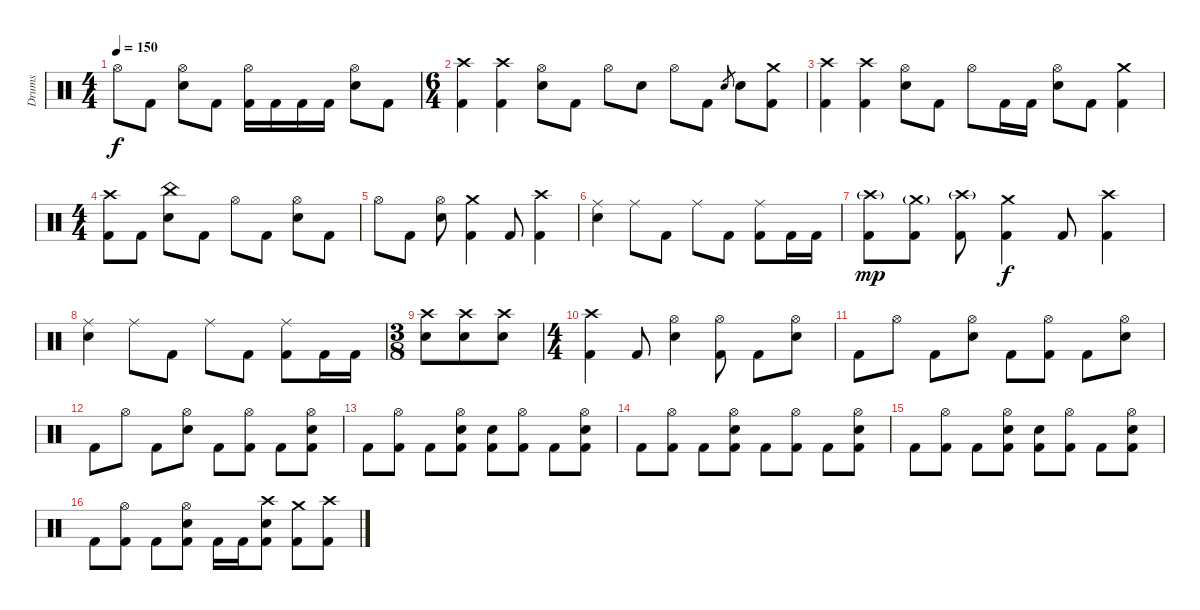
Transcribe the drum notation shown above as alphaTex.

\track ("Drums" "Drums") {instrument percussion}
\staff {score}
\articulation defaults
\ts (4 4)
\tempo 150
\clef neutral
\ks c "Hi-Hat (open)".8{dy f} "Kick (hit) 2".8
("Hi-Hat (open)" "Electric Snare (hit)").8 "Kick (hit) 2".8 ("Hi-Hat (open)" "Kick (hit) 2").16 "Kick (hit) 2".16 "Kick (hit) 2".16 "Kick (hit) 2".16 ("Hi-Hat (open)" "Electric Snare (hit)").8 "Kick (hit) 2".8 |
\ts (6 4)
("Crash high (hit)" "Kick (hit) 2").4 ("Crash high (hit)" "Kick (hit) 2").4 ("Hi-Hat (open)" "Electric Snare (hit)").8 "Kick (hit) 2".8 "Hi-Hat (open)".8 "Electric Snare (hit)".8 "Hi-Hat (open)".8 "Kick (hit) 2".8 "Electric Snare (hit)".8{gr} "Electric Snare (hit)".8 ("Crash medium (hit)" "Kick (hit) 2").8 |
("Crash high (hit)" "Kick (hit) 2").4 ("Crash high (hit)" "Kick (hit) 2").4 ("Hi-Hat (open)" "Electric Snare (hit)").8 "Kick (hit) 2".8 "Hi-Hat (open)".8 "Kick (hit) 2".16 "Kick (hit) 2".16 ("Hi-Hat (open)" "Electric Snare (hit)").8 "Kick (hit) 2".8 ("Crash medium (hit)" "Kick (hit) 2").4 |
\ts (4 4)
("Crash high (hit)" "Kick (hit) 2").8 "Kick (hit) 2".8 ("China (hit)" "Electric Snare (hit)").8 "Kick (hit) 2".8 "Hi-Hat (open)".8 "Kick (hit) 2".8 ("Hi-Hat (open)" "Electric Snare (hit)").8 "Kick (hit) 2".8 |
"Hi-Hat (open)".8 "Kick (hit) 2".8 ("Hi-Hat (open)" "Electric Snare (hit)").8 ("Crash medium (hit)" "Kick (hit) 2").4 "Kick (hit) 2".8 ("Crash high (hit)" "Kick (hit) 2").4 |
("Ride (middle)" "Electric Snare (hit)").4 "Ride (middle)".8 "Kick (hit) 2".8 "Ride (middle)".8 "Kick (hit) 2".8 ("Ride (middle)" "Kick (hit) 2").8 "Kick (hit) 2".16 "Kick (hit) 2".16 |
("Crash high (hit)"{g} "Kick (hit) 2").8{dy mp} ("Crash medium (hit)"{g} "Kick (hit) 2").8 ("Crash high (hit)"{g} "Kick (hit) 2").8 ("Crash medium (hit)" "Kick (hit) 2").4{dy f} "Kick (hit) 2".8 ("Crash high (hit)" "Kick (hit) 2").4 |
("Ride (middle)" "Electric Snare (hit)").4 "Ride (middle)".8 "Kick (hit) 2".8 "Ride (middle)".8 "Kick (hit) 2".8 ("Ride (middle)" "Kick (hit) 2").8 "Kick (hit) 2".16 "Kick (hit) 2".16 |
\ts (3 8)
("Crash high (hit)" "Electric Snare (hit)").8 ("Crash high (hit)" "Electric Snare (hit)").8 ("Crash high (hit)" "Electric Snare (hit)").8 |
\ts (4 4)
("Crash high (hit)" "Kick (hit) 2").4 "Kick (hit) 2".8 ("Hi-Hat (open)" "Electric Snare (hit)").4 ("Hi-Hat (open)" "Kick (hit) 2").8 "Kick (hit) 2".8 ("Hi-Hat (open)" "Electric Snare (hit)").8 |
"Kick (hit) 2".8 "Hi-Hat (open)".8 "Kick (hit) 2".8 ("Hi-Hat (open)" "Electric Snare (hit)").8 "Kick (hit) 2".8 ("Hi-Hat (open)" "Kick (hit) 2").8 "Kick (hit) 2".8 ("Hi-Hat (open)" "Electric Snare (hit)").8 |
"Kick (hit) 2".8 "Hi-Hat (open)".8 "Kick (hit) 2".8 ("Hi-Hat (open)" "Electric Snare (hit)").8 "Kick (hit) 2".8 ("Hi-Hat (open)" "Kick (hit) 2").8 "Kick (hit) 2".8 ("Hi-Hat (open)" "Electric Snare (hit)" "Kick (hit) 2").8 |
"Kick (hit) 2".8 ("Hi-Hat (open)" "Kick (hit) 2").8 "Kick (hit) 2".8 ("Hi-Hat (open)" "Electric Snare (hit)" "Kick (hit) 2").8 ("Electric Snare (hit)" "Kick (hit) 2").8 ("Hi-Hat (open)" "Kick (hit) 2").8 "Kick (hit) 2".8 ("Hi-Hat (open)" "Electric Snare (hit)" "Kick (hit) 2").8 |
"Kick (hit) 2".8 ("Hi-Hat (open)" "Kick (hit) 2").8 "Kick (hit) 2".8 ("Hi-Hat (open)" "Electric Snare (hit)" "Kick (hit) 2").8 "Kick (hit) 2".8 ("Hi-Hat (open)" "Kick (hit) 2").8 "Kick (hit) 2".8 ("Hi-Hat (open)" "Electric Snare (hit)" "Kick (hit) 2").8 |
"Kick (hit) 2".8 ("Hi-Hat (open)" "Kick (hit) 2").8 "Kick (hit) 2".8 ("Hi-Hat (open)" "Electric Snare (hit)" "Kick (hit) 2").8 ("Electric Snare (hit)" "Kick (hit) 2").8 ("Hi-Hat (open)" "Kick (hit) 2").8 "Kick (hit) 2".8 ("Hi-Hat (open)" "Electric Snare (hit)" "Kick (hit) 2").8 |
"Kick (hit) 2".8 ("Hi-Hat (open)" "Kick (hit) 2").8 "Kick (hit) 2".8 ("Hi-Hat (open)" "Electric Snare (hit)" "Kick (hit) 2").8 "Kick (hit) 2".16 "Kick (hit) 2".16 ("Crash high (hit)" "Electric Snare (hit)" "Kick (hit) 2").8 ("Crash medium (hit)" "Kick (hit) 2").8 ("Crash high (hit)" "Kick (hit) 2").8
